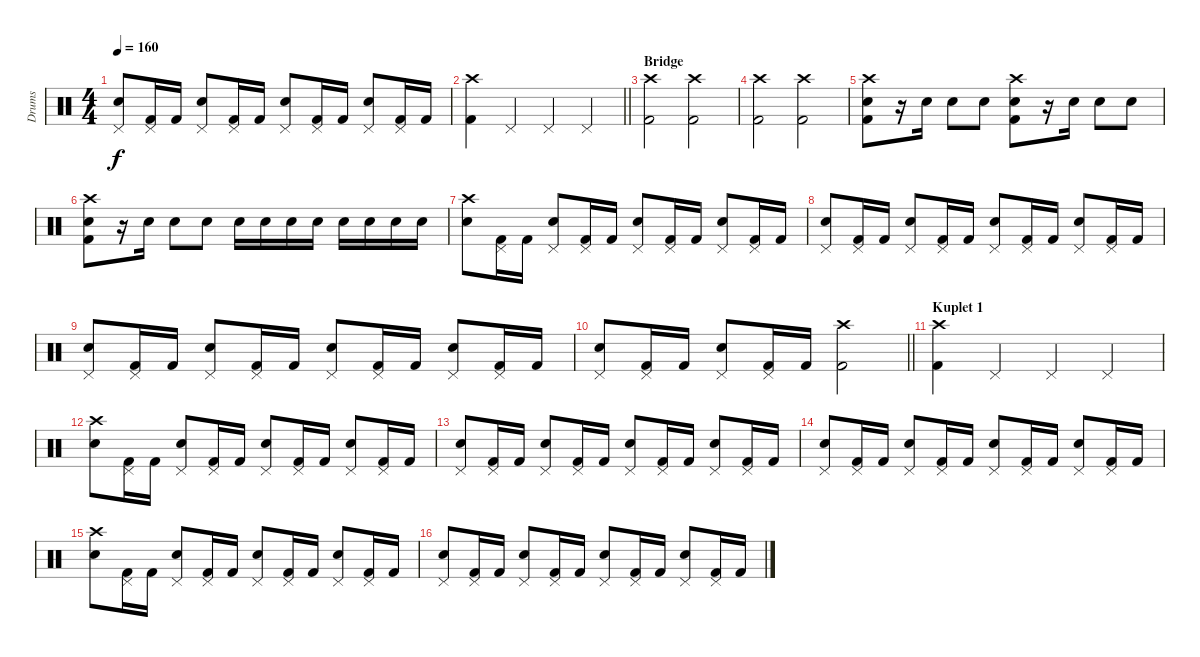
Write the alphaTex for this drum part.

\track ("Drums" "Drums") {instrument percussion}
\staff {score}
\articulation defaults
\ts (4 4)
\tempo 160
\clef neutral
\ks c
("Pedal Hi-Hat (hit)" "Snare (hit) 2").8{dy f} ("Pedal Hi-Hat (hit)" "Kick (hit) 2").16 "Kick (hit) 2".16 ("Pedal Hi-Hat (hit)" "Snare (hit) 2").8 ("Pedal Hi-Hat (hit)" "Kick (hit) 2").16 "Kick (hit) 2".16 ("Pedal Hi-Hat (hit)" "Snare (hit) 2").8 ("Pedal Hi-Hat (hit)" "Kick (hit) 2").16 "Kick (hit) 2".16 ("Pedal Hi-Hat (hit)" "Snare (hit) 2").8 ("Pedal Hi-Hat (hit)" "Kick (hit) 2").16 "Kick (hit) 2".16 |
\barLineRight lightlight
("Crash high (hit)" "Kick (hit) 2").4 "Pedal Hi-Hat (hit)".4 "Pedal Hi-Hat (hit)".4 "Pedal Hi-Hat (hit)".4 |
\section ("" "Bridge")
("Crash high (hit)" "Kick (hit) 2").2 ("Crash high (hit)" "Kick (hit) 2").2 |
("Crash high (hit)" "Kick (hit) 2").2 ("Crash high (hit)" "Kick (hit) 2").2 |
("Crash high (hit)" "Snare (hit) 2" "Kick (hit) 2").8 r.16 "Snare (hit) 2".16 "Snare (hit) 2".8 "Snare (hit) 2".8 ("Crash high (hit)" "Snare (hit) 2" "Kick (hit) 2").8 r.16 "Snare (hit) 2".16 "Snare (hit) 2".8 "Snare (hit) 2".8 |
("Crash high (hit)" "Snare (hit) 2" "Kick (hit) 2").8 r.16 "Snare (hit) 2".16 "Snare (hit) 2".8 "Snare (hit) 2".8 "Snare (hit) 2".16 "Snare (hit) 2".16 "Snare (hit) 2".16 "Snare (hit) 2".16 "Snare (hit) 2".16 "Snare (hit) 2".16 "Snare (hit) 2".16 "Snare (hit) 2".16 |
("Crash high (hit)" "Snare (hit) 2").8 ("Pedal Hi-Hat (hit)" "Kick (hit) 2").16 "Kick (hit) 2".16 ("Pedal Hi-Hat (hit)" "Snare (hit) 2").8 ("Pedal Hi-Hat (hit)" "Kick (hit) 2").16 "Kick (hit) 2".16 ("Pedal Hi-Hat (hit)" "Snare (hit) 2").8 ("Pedal Hi-Hat (hit)" "Kick (hit) 2").16 "Kick (hit) 2".16 ("Pedal Hi-Hat (hit)" "Snare (hit) 2").8 ("Pedal Hi-Hat (hit)" "Kick (hit) 2").16 "Kick (hit) 2".16 |
("Pedal Hi-Hat (hit)" "Snare (hit) 2").8 ("Pedal Hi-Hat (hit)" "Kick (hit) 2").16 "Kick (hit) 2".16 ("Pedal Hi-Hat (hit)" "Snare (hit) 2").8 ("Pedal Hi-Hat (hit)" "Kick (hit) 2").16 "Kick (hit) 2".16 ("Pedal Hi-Hat (hit)" "Snare (hit) 2").8 ("Pedal Hi-Hat (hit)" "Kick (hit) 2").16 "Kick (hit) 2".16 ("Pedal Hi-Hat (hit)" "Snare (hit) 2").8 ("Pedal Hi-Hat (hit)" "Kick (hit) 2").16 "Kick (hit) 2".16 |
("Pedal Hi-Hat (hit)" "Snare (hit) 2").8 ("Pedal Hi-Hat (hit)" "Kick (hit) 2").16 "Kick (hit) 2".16 ("Pedal Hi-Hat (hit)" "Snare (hit) 2").8 ("Pedal Hi-Hat (hit)" "Kick (hit) 2").16 "Kick (hit) 2".16 ("Pedal Hi-Hat (hit)" "Snare (hit) 2").8 ("Pedal Hi-Hat (hit)" "Kick (hit) 2").16 "Kick (hit) 2".16 ("Pedal Hi-Hat (hit)" "Snare (hit) 2").8 ("Pedal Hi-Hat (hit)" "Kick (hit) 2").16 "Kick (hit) 2".16 |
\barLineRight lightlight
("Pedal Hi-Hat (hit)" "Snare (hit) 2").8 ("Pedal Hi-Hat (hit)" "Kick (hit) 2").16 "Kick (hit) 2".16 ("Pedal Hi-Hat (hit)" "Snare (hit) 2").8 ("Pedal Hi-Hat (hit)" "Kick (hit) 2").16 "Kick (hit) 2".16 ("Crash high (hit)" "Kick (hit) 2").2 |
\section ("" "Kuplet 1")
("Crash high (hit)" "Kick (hit) 2").4 "Pedal Hi-Hat (hit)".4 "Pedal Hi-Hat (hit)".4 "Pedal Hi-Hat (hit)".4 |
("Crash high (hit)" "Snare (hit) 2").8 ("Pedal Hi-Hat (hit)" "Kick (hit) 2").16 "Kick (hit) 2".16 ("Pedal Hi-Hat (hit)" "Snare (hit) 2").8 ("Pedal Hi-Hat (hit)" "Kick (hit) 2").16 "Kick (hit) 2".16 ("Pedal Hi-Hat (hit)" "Snare (hit) 2").8 ("Pedal Hi-Hat (hit)" "Kick (hit) 2").16 "Kick (hit) 2".16 ("Pedal Hi-Hat (hit)" "Snare (hit) 2").8 ("Pedal Hi-Hat (hit)" "Kick (hit) 2").16 "Kick (hit) 2".16 |
("Pedal Hi-Hat (hit)" "Snare (hit) 2").8 ("Pedal Hi-Hat (hit)" "Kick (hit) 2").16 "Kick (hit) 2".16 ("Pedal Hi-Hat (hit)" "Snare (hit) 2").8 ("Pedal Hi-Hat (hit)" "Kick (hit) 2").16 "Kick (hit) 2".16 ("Pedal Hi-Hat (hit)" "Snare (hit) 2").8 ("Pedal Hi-Hat (hit)" "Kick (hit) 2").16 "Kick (hit) 2".16 ("Pedal Hi-Hat (hit)" "Snare (hit) 2").8 ("Pedal Hi-Hat (hit)" "Kick (hit) 2").16 "Kick (hit) 2".16 |
("Pedal Hi-Hat (hit)" "Snare (hit) 2").8 ("Pedal Hi-Hat (hit)" "Kick (hit) 2").16 "Kick (hit) 2".16 ("Pedal Hi-Hat (hit)" "Snare (hit) 2").8 ("Pedal Hi-Hat (hit)" "Kick (hit) 2").16 "Kick (hit) 2".16 ("Pedal Hi-Hat (hit)" "Snare (hit) 2").8 ("Pedal Hi-Hat (hit)" "Kick (hit) 2").16 "Kick (hit) 2".16 ("Pedal Hi-Hat (hit)" "Snare (hit) 2").8 ("Pedal Hi-Hat (hit)" "Kick (hit) 2").16 "Kick (hit) 2".16 |
("Crash high (hit)" "Snare (hit) 2").8 ("Pedal Hi-Hat (hit)" "Kick (hit) 2").16 "Kick (hit) 2".16 ("Pedal Hi-Hat (hit)" "Snare (hit) 2").8 ("Pedal Hi-Hat (hit)" "Kick (hit) 2").16 "Kick (hit) 2".16 ("Pedal Hi-Hat (hit)" "Snare (hit) 2").8 ("Pedal Hi-Hat (hit)" "Kick (hit) 2").16 "Kick (hit) 2".16 ("Pedal Hi-Hat (hit)" "Snare (hit) 2").8 ("Pedal Hi-Hat (hit)" "Kick (hit) 2").16 "Kick (hit) 2".16 |
("Pedal Hi-Hat (hit)" "Snare (hit) 2").8 ("Pedal Hi-Hat (hit)" "Kick (hit) 2").16 "Kick (hit) 2".16 ("Pedal Hi-Hat (hit)" "Snare (hit) 2").8 ("Pedal Hi-Hat (hit)" "Kick (hit) 2").16 "Kick (hit) 2".16 ("Pedal Hi-Hat (hit)" "Snare (hit) 2").8 ("Pedal Hi-Hat (hit)" "Kick (hit) 2").16 "Kick (hit) 2".16 ("Pedal Hi-Hat (hit)" "Snare (hit) 2").8 ("Pedal Hi-Hat (hit)" "Kick (hit) 2").16 "Kick (hit) 2".16
